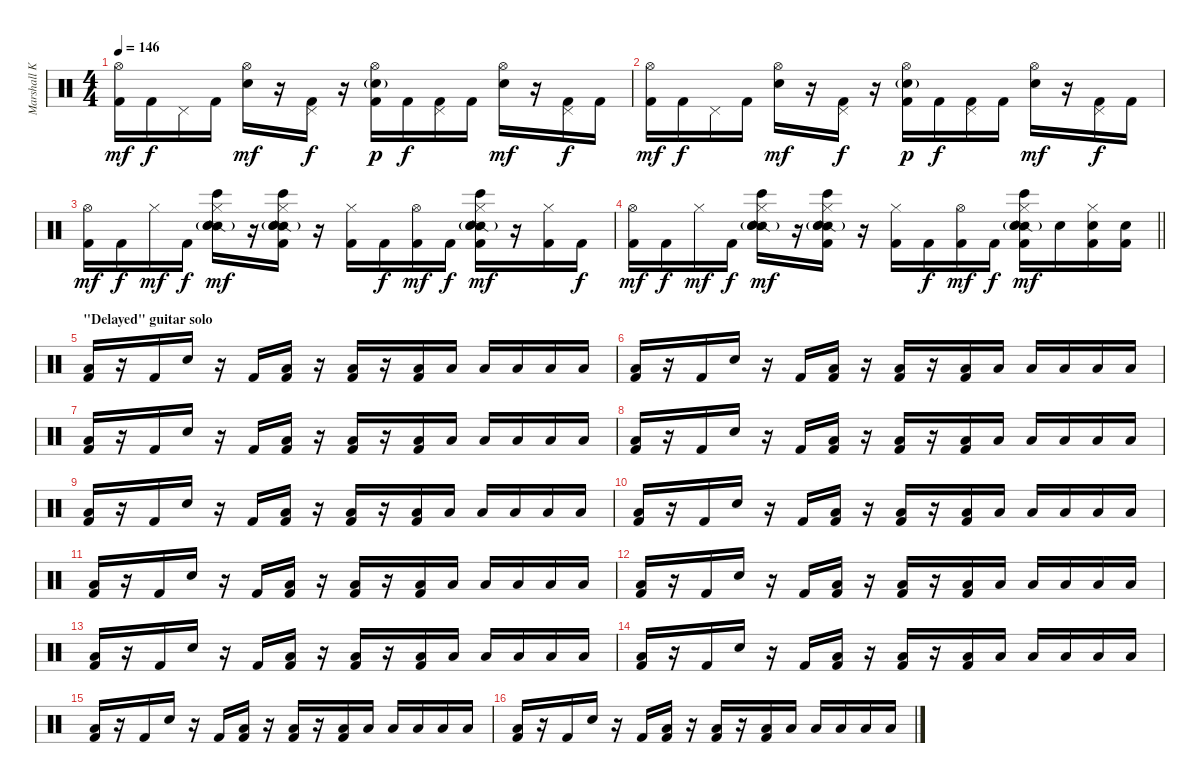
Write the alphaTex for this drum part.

\track ("Marshall Kilpatric" "Marshall K") {instrument percussion}
\staff {score}
\articulation defaults
\ts (4 4)
\tempo 146
\clef neutral
\ks c
("Hi-Hat (open)" "Kick (hit) 2").16{dy mf} "Kick (hit) 2".16{dy f} "Pedal Hi-Hat (hit)".16 "Kick (hit) 2".16 ("Hi-Hat (open)" "Electric Snare (hit)").16{dy mf} r.16 ("Pedal Hi-Hat (hit)" "Kick (hit) 2").16{dy f} r.16 ("Hi-Hat (open)" "Snare (hit) 2"{g} "Kick (hit) 2").16{dy p} "Kick (hit) 2".16{dy f} ("Pedal Hi-Hat (hit)" "Kick (hit) 2").16 "Kick (hit) 2".16 ("Hi-Hat (open)" "Electric Snare (hit)").16{dy mf} r.16 ("Pedal Hi-Hat (hit)" "Kick (hit) 2").16{dy f} "Kick (hit) 2".16 |
("Hi-Hat (open)" "Kick (hit) 2").16{dy mf} "Kick (hit) 2".16{dy f} "Pedal Hi-Hat (hit)".16 "Kick (hit) 2".16 ("Hi-Hat (open)" "Electric Snare (hit)").16{dy mf} r.16 ("Pedal Hi-Hat (hit)" "Kick (hit) 2").16{dy f} r.16 ("Hi-Hat (open)" "Snare (hit) 2"{g} "Kick (hit) 2").16{dy p} "Kick (hit) 2".16{dy f} ("Pedal Hi-Hat (hit)" "Kick (hit) 2").16 "Kick (hit) 2".16 ("Hi-Hat (open)" "Electric Snare (hit)").16{dy mf} r.16 ("Pedal Hi-Hat (hit)" "Kick (hit) 2").16{dy f} "Kick (hit) 2".16 |
("Hi-Hat (open)" "Kick (hit) 2").16{dy mf} "Kick (hit) 2".16{dy f} "Hi-Hat (closed)".16{dy mf} "Kick (hit) 2".16{dy f} ("Snare (side stick) 2" "Snare (hit) 2"{g} "Bongo High (hit)" "Electric Snare (hit)" "Hi-Hat (closed)").16{dy mf} r.16 ("Snare (side stick) 2" "Snare (hit) 2"{g} "Bongo High (hit)" "Electric Snare (hit)" "Hi-Hat (closed)" "Kick (hit) 2").16 r.16 ("Hi-Hat (closed)" "Kick (hit) 2").16 "Kick (hit) 2".16{dy f} ("Hi-Hat (open)" "Kick (hit) 2").16{dy mf} "Kick (hit) 2".16{dy f} ("Snare (side stick) 2" "Snare (hit) 2"{g} "Bongo High (hit)" "Electric Snare (hit)" "Hi-Hat (closed)" "Kick (hit) 2").16{dy mf} r.16 ("Hi-Hat (closed)" "Kick (hit) 2").16 "Kick (hit) 2".16{dy f} |
\barLineRight lightlight
("Hi-Hat (open)" "Kick (hit) 2").16{dy mf} "Kick (hit) 2".16{dy f} "Hi-Hat (closed)".16{dy mf} "Kick (hit) 2".16{dy f} ("Snare (side stick) 2" "Snare (hit) 2"{g} "Bongo High (hit)" "Electric Snare (hit)" "Hi-Hat (closed)").16{dy mf} r.16 ("Snare (side stick) 2" "Snare (hit) 2"{g} "Bongo High (hit)" "Electric Snare (hit)" "Hi-Hat (closed)" "Kick (hit) 2").16 r.16 ("Hi-Hat (closed)" "Kick (hit) 2").16 "Kick (hit) 2".16{dy f} ("Hi-Hat (open)" "Kick (hit) 2").16{dy mf} "Kick (hit) 2".16{dy f} ("Snare (side stick) 2" "Snare (hit) 2"{g} "Bongo High (hit)" "Electric Snare (hit)" "Hi-Hat (closed)" "Kick (hit) 2").16{dy mf} "Electric Snare (hit)".16 ("Electric Snare (hit)" "Hi-Hat (closed)" "Kick (hit) 2").16 ("Electric Snare (hit)" "Kick (hit) 2").16 |
\section ("" "\"Delayed\" guitar solo")
("Low Floor Tom (hit)" "Kick (hit) 2").16 r.16 "Kick (hit) 2".16 "Electric Snare (hit)".16 r.16 "Kick (hit) 2".16 ("Low Floor Tom (hit)" "Kick (hit) 2").16 r.16 ("Low Floor Tom (hit)" "Kick (hit) 2").16 r.16 ("Low Floor Tom (hit)" "Kick (hit) 2").16 "Low Floor Tom (hit)".16 "Low Floor Tom (hit)".16 "Low Floor Tom (hit)".16 "Low Floor Tom (hit)".16 "Low Floor Tom (hit)".16 |
("Low Floor Tom (hit)" "Kick (hit) 2").16 r.16 "Kick (hit) 2".16 "Electric Snare (hit)".16 r.16 "Kick (hit) 2".16 ("Low Floor Tom (hit)" "Kick (hit) 2").16 r.16 ("Low Floor Tom (hit)" "Kick (hit) 2").16 r.16 ("Low Floor Tom (hit)" "Kick (hit) 2").16 "Low Floor Tom (hit)".16 "Low Floor Tom (hit)".16 "Low Floor Tom (hit)".16 "Low Floor Tom (hit)".16 "Low Floor Tom (hit)".16 |
("Low Floor Tom (hit)" "Kick (hit) 2").16 r.16 "Kick (hit) 2".16 "Electric Snare (hit)".16 r.16 "Kick (hit) 2".16 ("Low Floor Tom (hit)" "Kick (hit) 2").16 r.16 ("Low Floor Tom (hit)" "Kick (hit) 2").16 r.16 ("Low Floor Tom (hit)" "Kick (hit) 2").16 "Low Floor Tom (hit)".16 "Low Floor Tom (hit)".16 "Low Floor Tom (hit)".16 "Low Floor Tom (hit)".16 "Low Floor Tom (hit)".16 |
("Low Floor Tom (hit)" "Kick (hit) 2").16 r.16 "Kick (hit) 2".16 "Electric Snare (hit)".16 r.16 "Kick (hit) 2".16 ("Low Floor Tom (hit)" "Kick (hit) 2").16 r.16 ("Low Floor Tom (hit)" "Kick (hit) 2").16 r.16 ("Low Floor Tom (hit)" "Kick (hit) 2").16 "Low Floor Tom (hit)".16 "Low Floor Tom (hit)".16 "Low Floor Tom (hit)".16 "Low Floor Tom (hit)".16 "Low Floor Tom (hit)".16 |
("Low Floor Tom (hit)" "Kick (hit) 2").16 r.16 "Kick (hit) 2".16 "Electric Snare (hit)".16 r.16 "Kick (hit) 2".16 ("Low Floor Tom (hit)" "Kick (hit) 2").16 r.16 ("Low Floor Tom (hit)" "Kick (hit) 2").16 r.16 ("Low Floor Tom (hit)" "Kick (hit) 2").16 "Low Floor Tom (hit)".16 "Low Floor Tom (hit)".16 "Low Floor Tom (hit)".16 "Low Floor Tom (hit)".16 "Low Floor Tom (hit)".16 |
("Low Floor Tom (hit)" "Kick (hit) 2").16 r.16 "Kick (hit) 2".16 "Electric Snare (hit)".16 r.16 "Kick (hit) 2".16 ("Low Floor Tom (hit)" "Kick (hit) 2").16 r.16 ("Low Floor Tom (hit)" "Kick (hit) 2").16 r.16 ("Low Floor Tom (hit)" "Kick (hit) 2").16 "Low Floor Tom (hit)".16 "Low Floor Tom (hit)".16 "Low Floor Tom (hit)".16 "Low Floor Tom (hit)".16 "Low Floor Tom (hit)".16 |
("Low Floor Tom (hit)" "Kick (hit) 2").16 r.16 "Kick (hit) 2".16 "Electric Snare (hit)".16 r.16 "Kick (hit) 2".16 ("Low Floor Tom (hit)" "Kick (hit) 2").16 r.16 ("Low Floor Tom (hit)" "Kick (hit) 2").16 r.16 ("Low Floor Tom (hit)" "Kick (hit) 2").16 "Low Floor Tom (hit)".16 "Low Floor Tom (hit)".16 "Low Floor Tom (hit)".16 "Low Floor Tom (hit)".16 "Low Floor Tom (hit)".16 |
("Low Floor Tom (hit)" "Kick (hit) 2").16 r.16 "Kick (hit) 2".16 "Electric Snare (hit)".16 r.16 "Kick (hit) 2".16 ("Low Floor Tom (hit)" "Kick (hit) 2").16 r.16 ("Low Floor Tom (hit)" "Kick (hit) 2").16 r.16 ("Low Floor Tom (hit)" "Kick (hit) 2").16 "Low Floor Tom (hit)".16 "Low Floor Tom (hit)".16 "Low Floor Tom (hit)".16 "Low Floor Tom (hit)".16 "Low Floor Tom (hit)".16 |
("Low Floor Tom (hit)" "Kick (hit) 2").16 r.16 "Kick (hit) 2".16 "Electric Snare (hit)".16 r.16 "Kick (hit) 2".16 ("Low Floor Tom (hit)" "Kick (hit) 2").16 r.16 ("Low Floor Tom (hit)" "Kick (hit) 2").16 r.16 ("Low Floor Tom (hit)" "Kick (hit) 2").16 "Low Floor Tom (hit)".16 "Low Floor Tom (hit)".16 "Low Floor Tom (hit)".16 "Low Floor Tom (hit)".16 "Low Floor Tom (hit)".16 |
("Low Floor Tom (hit)" "Kick (hit) 2").16 r.16 "Kick (hit) 2".16 "Electric Snare (hit)".16 r.16 "Kick (hit) 2".16 ("Low Floor Tom (hit)" "Kick (hit) 2").16 r.16 ("Low Floor Tom (hit)" "Kick (hit) 2").16 r.16 ("Low Floor Tom (hit)" "Kick (hit) 2").16 "Low Floor Tom (hit)".16 "Low Floor Tom (hit)".16 "Low Floor Tom (hit)".16 "Low Floor Tom (hit)".16 "Low Floor Tom (hit)".16 |
("Low Floor Tom (hit)" "Kick (hit) 2").16 r.16 "Kick (hit) 2".16 "Electric Snare (hit)".16 r.16 "Kick (hit) 2".16 ("Low Floor Tom (hit)" "Kick (hit) 2").16 r.16 ("Low Floor Tom (hit)" "Kick (hit) 2").16 r.16 ("Low Floor Tom (hit)" "Kick (hit) 2").16 "Low Floor Tom (hit)".16 "Low Floor Tom (hit)".16 "Low Floor Tom (hit)".16 "Low Floor Tom (hit)".16 "Low Floor Tom (hit)".16 |
("Low Floor Tom (hit)" "Kick (hit) 2").16 r.16 "Kick (hit) 2".16 "Electric Snare (hit)".16 r.16 "Kick (hit) 2".16 ("Low Floor Tom (hit)" "Kick (hit) 2").16 r.16 ("Low Floor Tom (hit)" "Kick (hit) 2").16 r.16 ("Low Floor Tom (hit)" "Kick (hit) 2").16 "Low Floor Tom (hit)".16 "Low Floor Tom (hit)".16 "Low Floor Tom (hit)".16 "Low Floor Tom (hit)".16 "Low Floor Tom (hit)".16
